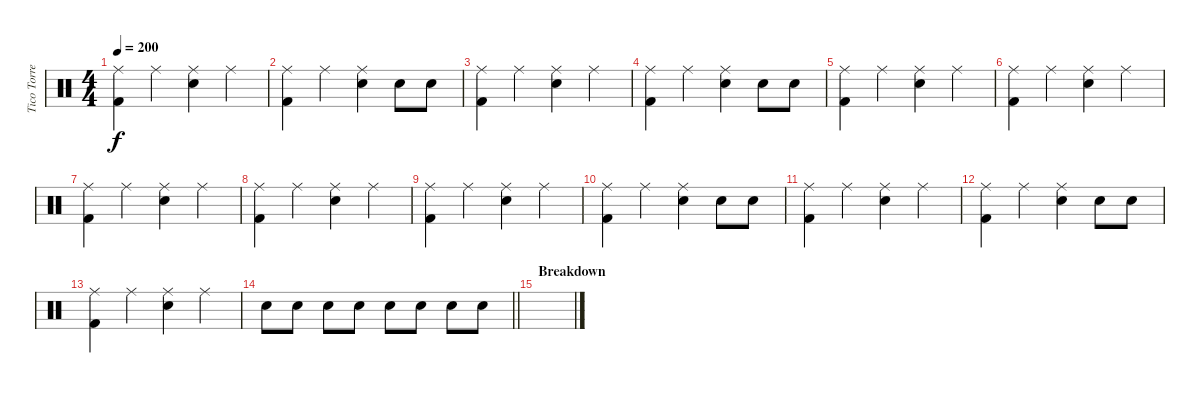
\track ("Tico Torres" "Tico Torre") {instrument percussion}
\staff {score}
\articulation defaults
\ts (4 4)
\tempo 200
\clef neutral
\ks c
("Ride (middle)" "Kick (hit) 2").4{dy f} "Ride (middle)".4 ("Snare (hit) 2" "Ride (middle)").4 "Ride (middle)".4 |
("Ride (middle)" "Kick (hit) 2").4 "Ride (middle)".4 ("Snare (hit) 2" "Ride (middle)").4 "Snare (hit) 2".8 "Snare (hit) 2".8 |
("Ride (middle)" "Kick (hit) 2").4 "Ride (middle)".4 ("Snare (hit) 2" "Ride (middle)").4 "Ride (middle)".4 |
("Ride (middle)" "Kick (hit) 2").4 "Ride (middle)".4 ("Snare (hit) 2" "Ride (middle)").4 "Snare (hit) 2".8 "Snare (hit) 2".8 |
("Ride (middle)" "Kick (hit) 2").4 "Ride (middle)".4 ("Snare (hit) 2" "Ride (middle)").4 "Ride (middle)".4 |
("Ride (middle)" "Kick (hit) 2").4 "Ride (middle)".4 ("Snare (hit) 2" "Ride (middle)").4 "Ride (middle)".4 |
("Ride (middle)" "Kick (hit) 2").4 "Ride (middle)".4 ("Snare (hit) 2" "Ride (middle)").4 "Ride (middle)".4 |
("Ride (middle)" "Kick (hit) 2").4 "Ride (middle)".4 ("Snare (hit) 2" "Ride (middle)").4 "Ride (middle)".4 |
("Ride (middle)" "Kick (hit) 2").4 "Ride (middle)".4 ("Snare (hit) 2" "Ride (middle)").4 "Ride (middle)".4 |
("Ride (middle)" "Kick (hit) 2").4 "Ride (middle)".4 ("Snare (hit) 2" "Ride (middle)").4 "Snare (hit) 2".8 "Snare (hit) 2".8 |
("Ride (middle)" "Kick (hit) 2").4 "Ride (middle)".4 ("Snare (hit) 2" "Ride (middle)").4 "Ride (middle)".4 |
("Ride (middle)" "Kick (hit) 2").4 "Ride (middle)".4 ("Snare (hit) 2" "Ride (middle)").4 "Snare (hit) 2".8 "Snare (hit) 2".8 |
("Ride (middle)" "Kick (hit) 2").4 "Ride (middle)".4 ("Snare (hit) 2" "Ride (middle)").4 "Ride (middle)".4 |
\barLineRight lightlight "Snare (hit) 2".8 "Snare (hit) 2".8 "Snare (hit) 2".8 "Snare (hit) 2".8 "Snare (hit) 2".8 "Snare (hit) 2".8 "Snare (hit) 2".8 "Snare (hit) 2".8
|
\section ("" "Breakdown")
